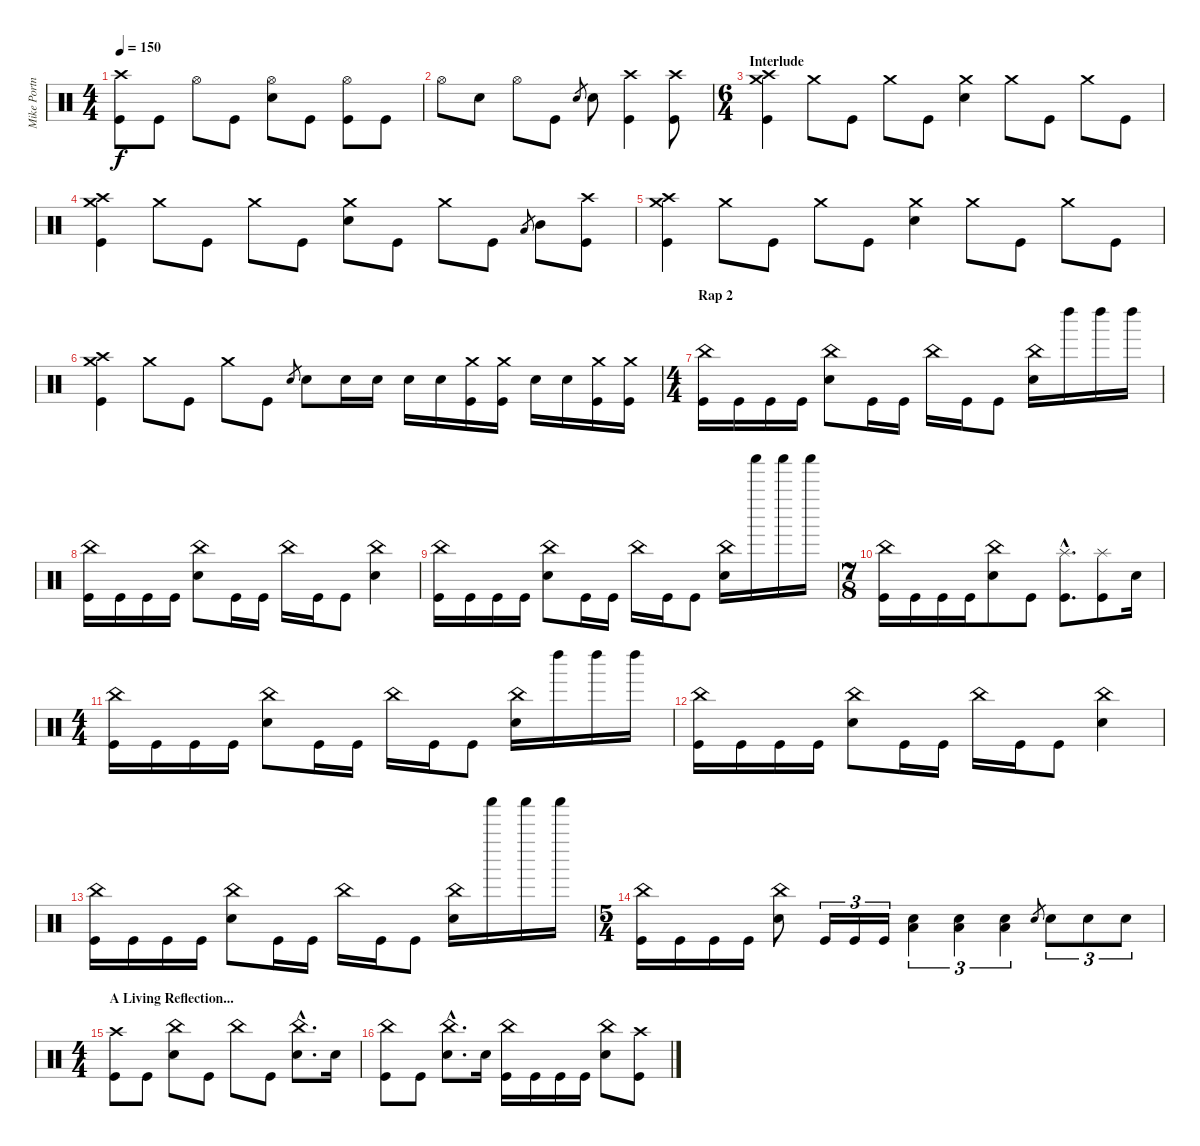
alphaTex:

\track ("Mike Portnoy" "Mike Portn") {instrument percussion}
\staff {score}
\articulation defaults
\ts (4 4)
\tempo 150
\clef neutral
\ks c
("Crash high (hit)" "Kick (hit)").8{dy f} "Kick (hit)".8 "Hi-Hat (open)".8 "Kick (hit)".8 ("Hi-Hat (open)" "Electric Snare (hit)").8 "Kick (hit)".8 ("Hi-Hat (open)" "Kick (hit)").8 "Kick (hit)".8 |
"Hi-Hat (open)".8 "Electric Snare (hit)".8 "Hi-Hat (open)".8 "Kick (hit)".8 "Electric Snare (hit)".8{gr} "Electric Snare (hit)".8 ("Crash high (hit)" "Kick (hit)").4 ("Crash high (hit)" "Kick (hit)").8 |
\ts (6 4)
\section ("" "Interlude")
("Crash high (hit)" "Crash medium (hit)" "Kick (hit)").4 "Crash medium (hit)".8 "Kick (hit)".8 "Crash medium (hit)".8 "Kick (hit)".8 ("Crash medium (hit)" "Electric Snare (hit)").4 "Crash medium (hit)".8 "Kick (hit)".8 "Crash medium (hit)".8 "Kick (hit)".8 |
("Crash high (hit)" "Crash medium (hit)" "Kick (hit)").4 "Crash medium (hit)".8 "Kick (hit)".8 "Crash medium (hit)".8 "Kick (hit)".8 ("Crash medium (hit)" "Electric Snare (hit)").8 "Kick (hit)".8 "Crash medium (hit)".8 "Kick (hit)".8 "Low Tom (hit)".8{gr} "Mid Tom (hit)".8 ("Crash high (hit)" "Kick (hit)").8 |
("Crash high (hit)" "Crash medium (hit)" "Kick (hit)").4 "Crash medium (hit)".8 "Kick (hit)".8 "Crash medium (hit)".8 "Kick (hit)".8 ("Crash medium (hit)" "Electric Snare (hit)").4 "Crash medium (hit)".8 "Kick (hit)".8 "Crash medium (hit)".8 "Kick (hit)".8 |
("Crash high (hit)" "Crash medium (hit)" "Kick (hit)").4 "Crash medium (hit)".8 "Kick (hit)".8 "Crash medium (hit)".8 "Kick (hit)".8 "Electric Snare (hit)".8{gr} "Electric Snare (hit)".8 "Electric Snare (hit)".16 "Electric Snare (hit)".16 "Electric Snare (hit)".16 "Electric Snare (hit)".16 ("Crash medium (hit)" "Kick (hit)").16 ("Crash medium (hit)" "Kick (hit)").16 "Electric Snare (hit)".16 "Electric Snare (hit)".16 ("Crash medium (hit)" "Kick (hit)").16 ("Crash medium (hit)" "Kick (hit)").16 |
\ts (4 4)
\section ("" "Rap 2")
("China (hit)" "Kick (hit)").16 "Kick (hit)".16 "Kick (hit)".16 "Kick (hit)".16 ("China (hit)" "Electric Snare (hit)").8 "Kick (hit)".16 "Kick (hit)".16 "China (hit)".16 "Kick (hit)".16 "Kick (hit)".8 ("China (hit)" "Electric Snare (hit)").16 "Left Maraca (hit)".16 "Left Maraca (hit)".16 "Left Maraca (hit)".16 |
("China (hit)" "Kick (hit)").16 "Kick (hit)".16 "Kick (hit)".16 "Kick (hit)".16 ("China (hit)" "Electric Snare (hit)").8 "Kick (hit)".16 "Kick (hit)".16 "China (hit)".16 "Kick (hit)".16 "Kick (hit)".8 ("China (hit)" "Electric Snare (hit)").4 |
("China (hit)" "Kick (hit)").16 "Kick (hit)".16 "Kick (hit)".16 "Kick (hit)".16 ("China (hit)" "Electric Snare (hit)").8 "Kick (hit)".16 "Kick (hit)".16 "China (hit)".16 "Kick (hit)".16 "Kick (hit)".8 ("China (hit)" "Electric Snare (hit)").16 "Shaker (hit)".16 "Shaker (hit)".16 "Shaker (hit)".16 |
\ts (7 8)
("China (hit)" "Kick (hit)").16 "Kick (hit)".16 "Kick (hit)".16 "Kick (hit)".16 ("China (hit)" "Electric Snare (hit)").8 "Kick (hit)".8 ("Splash (hit)"{hac} "Kick (hit)"{hac}).8{d} ("Splash (hit)" "Kick (hit)").8 "Electric Snare (hit)".16 |
\ts (4 4)
("China (hit)" "Kick (hit)").16 "Kick (hit)".16 "Kick (hit)".16 "Kick (hit)".16 ("China (hit)" "Electric Snare (hit)").8 "Kick (hit)".16 "Kick (hit)".16 "China (hit)".16 "Kick (hit)".16 "Kick (hit)".8 ("China (hit)" "Electric Snare (hit)").16 "Left Maraca (hit)".16 "Left Maraca (hit)".16 "Left Maraca (hit)".16 |
("China (hit)" "Kick (hit)").16 "Kick (hit)".16 "Kick (hit)".16 "Kick (hit)".16 ("China (hit)" "Electric Snare (hit)").8 "Kick (hit)".16 "Kick (hit)".16 "China (hit)".16 "Kick (hit)".16 "Kick (hit)".8 ("China (hit)" "Electric Snare (hit)").4 |
("China (hit)" "Kick (hit)").16 "Kick (hit)".16 "Kick (hit)".16 "Kick (hit)".16 ("China (hit)" "Electric Snare (hit)").8 "Kick (hit)".16 "Kick (hit)".16 "China (hit)".16 "Kick (hit)".16 "Kick (hit)".8 ("China (hit)" "Electric Snare (hit)").16 "Shaker (hit)".16 "Shaker (hit)".16 "Shaker (hit)".16 |
\ts (5 4)
("China (hit)" "Kick (hit)").16 "Kick (hit)".16 "Kick (hit)".16 "Kick (hit)".16 ("China (hit)" "Electric Snare (hit)").8 "Kick (hit)".16{tu (3 2)} "Kick (hit)".16{tu (3 2)} "Kick (hit)".16{tu (3 2)} ("Low Tom (hit)" "Electric Snare (hit)").4{tu (3 2)} ("Low Tom (hit)" "Electric Snare (hit)").4{tu (3 2)} ("Low Tom (hit)" "Electric Snare (hit)").4{tu (3 2)} "Electric Snare (hit)".8{gr} "Electric Snare (hit)".8{tu (3 2)} "Electric Snare (hit)".8{tu (3 2)} "Electric Snare (hit)".8{tu (3 2)} |
\ts (4 4)
\section ("" "A Living Reflection...")
("Crash high (hit)" "Kick (hit)").8 "Kick (hit)".8 ("China (hit)" "Electric Snare (hit)").8 "Kick (hit)".8 "China (hit)".8 "Kick (hit)".8 ("China (hit)"{hac} "Electric Snare (hit)"{hac}).8{d} "Electric Snare (hit)".16 |
("China (hit)" "Kick (hit)").8 "Kick (hit)".8 ("China (hit)"{hac} "Electric Snare (hit)"{hac}).8{d} "Electric Snare (hit)".16 ("China (hit)" "Kick (hit)").16 "Kick (hit)".16 "Kick (hit)".16 "Kick (hit)".16 ("China (hit)" "Electric Snare (hit)").8 ("Crash high (hit)" "Kick (hit)").8
